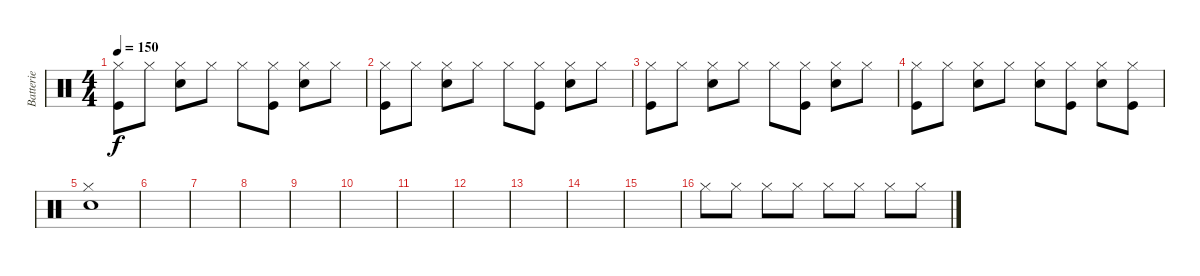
\track ("Batterie" "Batterie") {instrument percussion}
\staff {score}
\articulation defaults
\ts (4 4)
\tempo 150
\clef neutral
\ks c
("Hi-Hat (closed)" "Kick (hit)").8{dy f} "Hi-Hat (closed)".8 ("Hi-Hat (closed)" "Snare (hit) 2").8 "Hi-Hat (closed)".8 "Hi-Hat (closed)".8 ("Hi-Hat (closed)" "Kick (hit)").8 ("Hi-Hat (closed)" "Snare (hit) 2").8 "Hi-Hat (closed)".8 |
("Hi-Hat (closed)" "Kick (hit)").8 "Hi-Hat (closed)".8 ("Hi-Hat (closed)" "Snare (hit) 2").8 "Hi-Hat (closed)".8 "Hi-Hat (closed)".8 ("Hi-Hat (closed)" "Kick (hit)").8 ("Hi-Hat (closed)" "Snare (hit) 2").8 "Hi-Hat (closed)".8 |
("Hi-Hat (closed)" "Kick (hit)").8 "Hi-Hat (closed)".8 ("Hi-Hat (closed)" "Snare (hit) 2").8 "Hi-Hat (closed)".8 "Hi-Hat (closed)".8 ("Hi-Hat (closed)" "Kick (hit)").8 ("Hi-Hat (closed)" "Snare (hit) 2").8 "Hi-Hat (closed)".8 |
("Hi-Hat (closed)" "Kick (hit)").8 "Hi-Hat (closed)".8 ("Hi-Hat (closed)" "Snare (hit) 2").8 "Hi-Hat (closed)".8 ("Hi-Hat (closed)" "Snare (hit) 2").8 ("Hi-Hat (closed)" "Kick (hit)").8 ("Hi-Hat (closed)" "Snare (hit) 2").8 ("Hi-Hat (closed)" "Kick (hit)").8 |
("Hi-Hat (closed)" "Snare (hit) 2").1 |
|
|
|
|
|
|
|
|
|
|
"Hi-Hat (closed)".8 "Hi-Hat (closed)".8 "Hi-Hat (closed)".8 "Hi-Hat (closed)".8 "Hi-Hat (closed)".8 "Hi-Hat (closed)".8 "Hi-Hat (closed)".8 "Hi-Hat (closed)".8
